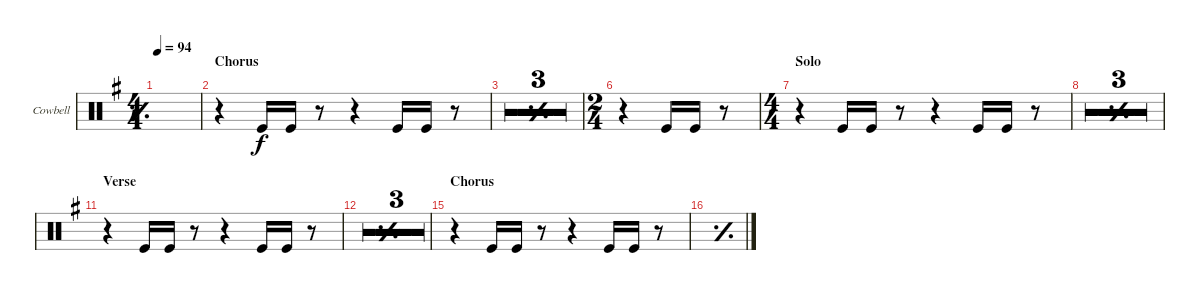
\defaultSystemsLayout 4
\bracketExtendMode groupsimilarinstruments
\firstSystemTrackNameOrientation horizontal
\otherSystemsTrackNameOrientation horizontal
\track ("Cowbell" "Cowbell") {multiBarRest instrument percussion}
\staff {score}
\articulation defaults
\ts (4 4)
\tempo 94
\clef neutral
\simile simple
\ks eminor
|
\section ("" "Chorus")
r.4 "Kick (hit)".16 "Kick (hit)".16 r.8 r.4 "Kick (hit)".16 "Kick (hit)".16 r.8 |
\simile simple
|
|
|
\ts (2 4)
\simile none
r.4 "Kick (hit)".16 "Kick (hit)".16 r.8 |
\ts (4 4)
\section ("" "Solo")
r.4 "Kick (hit)".16 "Kick (hit)".16 r.8 r.4 "Kick (hit)".16 "Kick (hit)".16 r.8 |
\simile simple
|
|
|
\section ("" "Verse")
\simile none
r.4 "Kick (hit)".16 "Kick (hit)".16 r.8 r.4 "Kick (hit)".16 "Kick (hit)".16 r.8 |
\simile simple
|
|
|
\section ("" "Chorus")
\simile none
r.4 "Kick (hit)".16 "Kick (hit)".16 r.8 r.4 "Kick (hit)".16 "Kick (hit)".16 r.8 |
\simile simple
